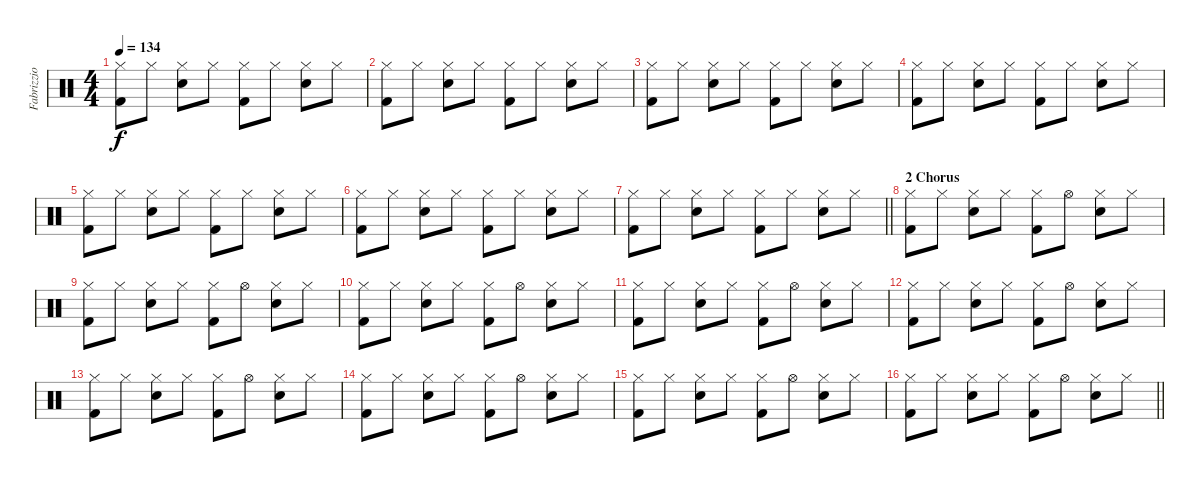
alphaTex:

\track ("Fabrizzio" "Fabrizzio") {instrument percussion}
\staff {score}
\articulation defaults
\ts (4 4)
\tempo 134
\clef neutral
\ks c
("Hi-Hat (closed)" "Kick (hit) 2").8{dy f} "Hi-Hat (closed)".8 ("Hi-Hat (closed)" "Snare (hit) 2").8 "Hi-Hat (closed)".8 ("Hi-Hat (closed)" "Kick (hit) 2").8 "Hi-Hat (closed)".8 ("Hi-Hat (closed)" "Snare (hit) 2").8 "Hi-Hat (closed)".8 |
("Hi-Hat (closed)" "Kick (hit) 2").8 "Hi-Hat (closed)".8 ("Hi-Hat (closed)" "Snare (hit) 2").8 "Hi-Hat (closed)".8 ("Hi-Hat (closed)" "Kick (hit) 2").8 "Hi-Hat (closed)".8 ("Hi-Hat (closed)" "Snare (hit) 2").8 "Hi-Hat (closed)".8 |
("Hi-Hat (closed)" "Kick (hit) 2").8 "Hi-Hat (closed)".8 ("Hi-Hat (closed)" "Snare (hit) 2").8 "Hi-Hat (closed)".8 ("Hi-Hat (closed)" "Kick (hit) 2").8 "Hi-Hat (closed)".8 ("Hi-Hat (closed)" "Snare (hit) 2").8 "Hi-Hat (closed)".8 |
("Hi-Hat (closed)" "Kick (hit) 2").8 "Hi-Hat (closed)".8 ("Hi-Hat (closed)" "Snare (hit) 2").8 "Hi-Hat (closed)".8 ("Hi-Hat (closed)" "Kick (hit) 2").8 "Hi-Hat (closed)".8 ("Hi-Hat (closed)" "Snare (hit) 2").8 "Hi-Hat (closed)".8 |
("Hi-Hat (closed)" "Kick (hit) 2").8 "Hi-Hat (closed)".8 ("Hi-Hat (closed)" "Snare (hit) 2").8 "Hi-Hat (closed)".8 ("Hi-Hat (closed)" "Kick (hit) 2").8 "Hi-Hat (closed)".8 ("Hi-Hat (closed)" "Snare (hit) 2").8 "Hi-Hat (closed)".8 |
("Hi-Hat (closed)" "Kick (hit) 2").8 "Hi-Hat (closed)".8 ("Hi-Hat (closed)" "Snare (hit) 2").8 "Hi-Hat (closed)".8 ("Hi-Hat (closed)" "Kick (hit) 2").8 "Hi-Hat (closed)".8 ("Hi-Hat (closed)" "Snare (hit) 2").8 "Hi-Hat (closed)".8 |
\barLineRight lightlight
("Hi-Hat (closed)" "Kick (hit) 2").8 "Hi-Hat (closed)".8 ("Hi-Hat (closed)" "Snare (hit) 2").8 "Hi-Hat (closed)".8 ("Hi-Hat (closed)" "Kick (hit) 2").8 "Hi-Hat (closed)".8 ("Hi-Hat (closed)" "Snare (hit) 2").8 "Hi-Hat (closed)".8 |
\section ("" "2 Chorus")
("Hi-Hat (closed)" "Kick (hit) 2").8 "Hi-Hat (closed)".8 ("Hi-Hat (closed)" "Snare (hit) 2").8 "Hi-Hat (closed)".8 ("Hi-Hat (closed)" "Kick (hit) 2").8 "Hi-Hat (open)".8 ("Hi-Hat (closed)" "Snare (hit) 2").8 "Hi-Hat (closed)".8 |
("Hi-Hat (closed)" "Kick (hit) 2").8 "Hi-Hat (closed)".8 ("Hi-Hat (closed)" "Snare (hit) 2").8 "Hi-Hat (closed)".8 ("Hi-Hat (closed)" "Kick (hit) 2").8 "Hi-Hat (open)".8 ("Hi-Hat (closed)" "Snare (hit) 2").8 "Hi-Hat (closed)".8 |
("Hi-Hat (closed)" "Kick (hit) 2").8 "Hi-Hat (closed)".8 ("Hi-Hat (closed)" "Snare (hit) 2").8 "Hi-Hat (closed)".8 ("Hi-Hat (closed)" "Kick (hit) 2").8 "Hi-Hat (open)".8 ("Hi-Hat (closed)" "Snare (hit) 2").8 "Hi-Hat (closed)".8 |
("Hi-Hat (closed)" "Kick (hit) 2").8 "Hi-Hat (closed)".8 ("Hi-Hat (closed)" "Snare (hit) 2").8 "Hi-Hat (closed)".8 ("Hi-Hat (closed)" "Kick (hit) 2").8 "Hi-Hat (open)".8 ("Hi-Hat (closed)" "Snare (hit) 2").8 "Hi-Hat (closed)".8 |
("Hi-Hat (closed)" "Kick (hit) 2").8 "Hi-Hat (closed)".8 ("Hi-Hat (closed)" "Snare (hit) 2").8 "Hi-Hat (closed)".8 ("Hi-Hat (closed)" "Kick (hit) 2").8 "Hi-Hat (open)".8 ("Hi-Hat (closed)" "Snare (hit) 2").8 "Hi-Hat (closed)".8 |
("Hi-Hat (closed)" "Kick (hit) 2").8 "Hi-Hat (closed)".8 ("Hi-Hat (closed)" "Snare (hit) 2").8 "Hi-Hat (closed)".8 ("Hi-Hat (closed)" "Kick (hit) 2").8 "Hi-Hat (open)".8 ("Hi-Hat (closed)" "Snare (hit) 2").8 "Hi-Hat (closed)".8 |
("Hi-Hat (closed)" "Kick (hit) 2").8 "Hi-Hat (closed)".8 ("Hi-Hat (closed)" "Snare (hit) 2").8 "Hi-Hat (closed)".8 ("Hi-Hat (closed)" "Kick (hit) 2").8 "Hi-Hat (open)".8 ("Hi-Hat (closed)" "Snare (hit) 2").8 "Hi-Hat (closed)".8 |
("Hi-Hat (closed)" "Kick (hit) 2").8 "Hi-Hat (closed)".8 ("Hi-Hat (closed)" "Snare (hit) 2").8 "Hi-Hat (closed)".8 ("Hi-Hat (closed)" "Kick (hit) 2").8 "Hi-Hat (open)".8 ("Hi-Hat (closed)" "Snare (hit) 2").8 "Hi-Hat (closed)".8 |
\barLineRight lightlight
("Hi-Hat (closed)" "Kick (hit) 2").8 "Hi-Hat (closed)".8 ("Hi-Hat (closed)" "Snare (hit) 2").8 "Hi-Hat (closed)".8 ("Hi-Hat (closed)" "Kick (hit) 2").8 "Hi-Hat (open)".8 ("Hi-Hat (closed)" "Snare (hit) 2").8 "Hi-Hat (closed)".8
